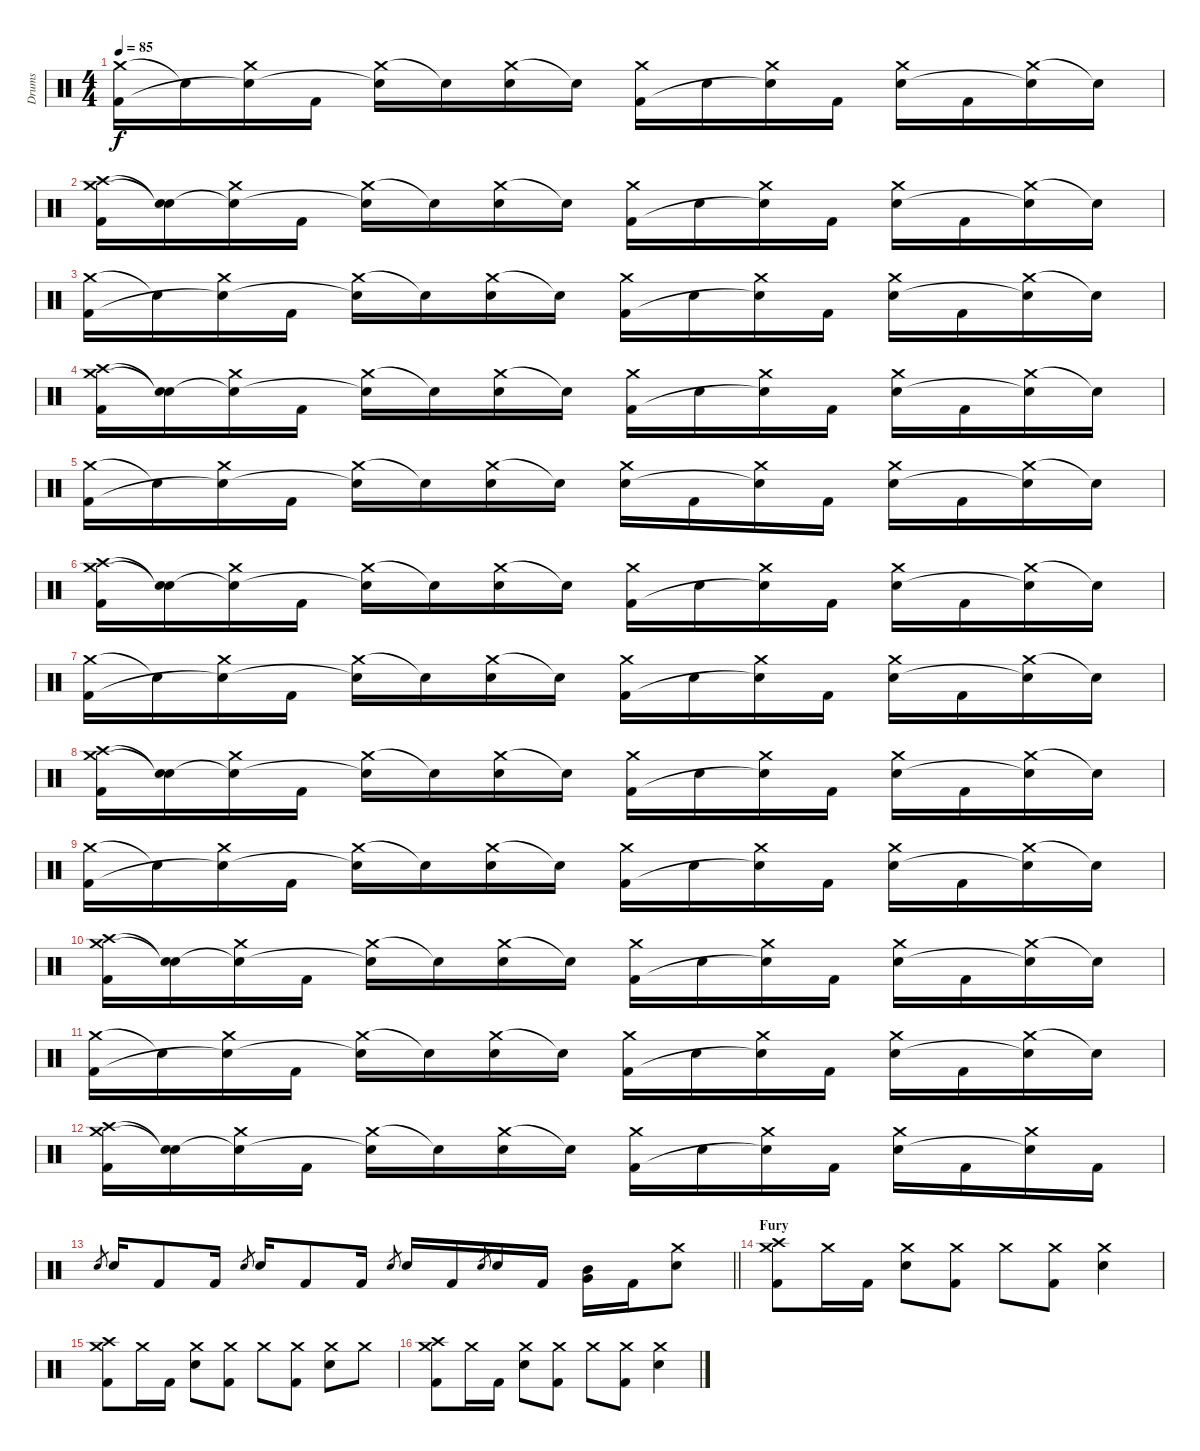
\track ("Drums" "Drums") {instrument percussion}
\staff {score}
\articulation defaults
\ts (4 4)
\tempo 85
\clef neutral
\ks c
("Crash medium (hit)" "Kick (hit) 2").16{dy f} "Snare (hit)"{t}.16 ("Crash medium (hit)" "Snare (hit)"{t}).16 "Kick (hit) 2".16 ("Crash medium (hit)" "Snare (hit)"{t}).16 "Snare (hit)"{t}.16 ("Crash medium (hit)" "Snare (hit) 2").16 "Snare (hit)"{t}.16 ("Crash medium (hit)" "Kick (hit) 2").16 "Snare (hit) 2".16 ("Crash medium (hit)" "Snare (hit)"{t}).16 "Kick (hit) 2".16 ("Crash medium (hit)" "Snare (hit) 2").16 "Kick (hit) 2".16 ("Crash medium (hit)" "Snare (hit)"{t}).16 "Snare (hit)"{t}.16 |
("Crash high (hit)" "Crash medium (hit)" "Kick (hit) 2").16 ("Snare (hit)"{t} "Snare (hit)"{t}).16 ("Crash medium (hit)" "Snare (hit)"{t}).16 "Kick (hit) 2".16 ("Crash medium (hit)" "Snare (hit)"{t}).16 "Snare (hit)"{t}.16 ("Crash medium (hit)" "Snare (hit) 2").16 "Snare (hit)"{t}.16 ("Crash medium (hit)" "Kick (hit) 2").16 "Snare (hit) 2".16 ("Crash medium (hit)" "Snare (hit)"{t}).16 "Kick (hit) 2".16 ("Crash medium (hit)" "Snare (hit) 2").16 "Kick (hit) 2".16 ("Crash medium (hit)" "Snare (hit)"{t}).16 "Snare (hit)"{t}.16 |
("Crash medium (hit)" "Kick (hit) 2").16 "Snare (hit)"{t}.16 ("Crash medium (hit)" "Snare (hit)"{t}).16 "Kick (hit) 2".16 ("Crash medium (hit)" "Snare (hit)"{t}).16 "Snare (hit)"{t}.16 ("Crash medium (hit)" "Snare (hit) 2").16 "Snare (hit)"{t}.16 ("Crash medium (hit)" "Kick (hit) 2").16 "Snare (hit) 2".16 ("Crash medium (hit)" "Snare (hit)"{t}).16 "Kick (hit) 2".16 ("Crash medium (hit)" "Snare (hit) 2").16 "Kick (hit) 2".16 ("Crash medium (hit)" "Snare (hit)"{t}).16 "Snare (hit)"{t}.16 |
("Crash high (hit)" "Crash medium (hit)" "Kick (hit) 2").16 ("Snare (hit)"{t} "Snare (hit)"{t}).16 ("Crash medium (hit)" "Snare (hit)"{t}).16 "Kick (hit) 2".16 ("Crash medium (hit)" "Snare (hit)"{t}).16 "Snare (hit)"{t}.16 ("Crash medium (hit)" "Snare (hit) 2").16 "Snare (hit)"{t}.16 ("Crash medium (hit)" "Kick (hit) 2").16 "Snare (hit) 2".16 ("Crash medium (hit)" "Snare (hit)"{t}).16 "Kick (hit) 2".16 ("Crash medium (hit)" "Snare (hit) 2").16 "Kick (hit) 2".16 ("Crash medium (hit)" "Snare (hit)"{t}).16 "Snare (hit)"{t}.16 |
("Crash medium (hit)" "Kick (hit) 2").16 "Snare (hit)"{t}.16 ("Crash medium (hit)" "Snare (hit)"{t}).16 "Kick (hit) 2".16 ("Crash medium (hit)" "Snare (hit)"{t}).16 "Snare (hit)"{t}.16 ("Crash medium (hit)" "Snare (hit) 2").16 "Snare (hit)"{t}.16 ("Crash medium (hit)" "Snare (hit) 2").16 "Kick (hit) 2".16 ("Crash medium (hit)" "Snare (hit)"{t}).16 "Kick (hit) 2".16 ("Crash medium (hit)" "Snare (hit) 2").16 "Kick (hit) 2".16 ("Crash medium (hit)" "Snare (hit)"{t}).16 "Snare (hit)"{t}.16 |
("Crash high (hit)" "Crash medium (hit)" "Kick (hit) 2").16 ("Snare (hit)"{t} "Snare (hit)"{t}).16 ("Crash medium (hit)" "Snare (hit)"{t}).16 "Kick (hit) 2".16 ("Crash medium (hit)" "Snare (hit)"{t}).16 "Snare (hit)"{t}.16 ("Crash medium (hit)" "Snare (hit) 2").16 "Snare (hit)"{t}.16 ("Crash medium (hit)" "Kick (hit) 2").16 "Snare (hit) 2".16 ("Crash medium (hit)" "Snare (hit)"{t}).16 "Kick (hit) 2".16 ("Crash medium (hit)" "Snare (hit) 2").16 "Kick (hit) 2".16 ("Crash medium (hit)" "Snare (hit)"{t}).16 "Snare (hit)"{t}.16 |
("Crash medium (hit)" "Kick (hit) 2").16 "Snare (hit)"{t}.16 ("Crash medium (hit)" "Snare (hit)"{t}).16 "Kick (hit) 2".16 ("Crash medium (hit)" "Snare (hit)"{t}).16 "Snare (hit)"{t}.16 ("Crash medium (hit)" "Snare (hit) 2").16 "Snare (hit)"{t}.16 ("Crash medium (hit)" "Kick (hit) 2").16 "Snare (hit) 2".16 ("Crash medium (hit)" "Snare (hit)"{t}).16 "Kick (hit) 2".16 ("Crash medium (hit)" "Snare (hit) 2").16 "Kick (hit) 2".16 ("Crash medium (hit)" "Snare (hit)"{t}).16 "Snare (hit)"{t}.16 |
("Crash high (hit)" "Crash medium (hit)" "Kick (hit) 2").16 ("Snare (hit)"{t} "Snare (hit)"{t}).16 ("Crash medium (hit)" "Snare (hit)"{t}).16 "Kick (hit) 2".16 ("Crash medium (hit)" "Snare (hit)"{t}).16 "Snare (hit)"{t}.16 ("Crash medium (hit)" "Snare (hit) 2").16 "Snare (hit)"{t}.16 ("Crash medium (hit)" "Kick (hit) 2").16 "Snare (hit) 2".16 ("Crash medium (hit)" "Snare (hit)"{t}).16 "Kick (hit) 2".16 ("Crash medium (hit)" "Snare (hit) 2").16 "Kick (hit) 2".16 ("Crash medium (hit)" "Snare (hit)"{t}).16 "Snare (hit)"{t}.16 |
("Crash medium (hit)" "Kick (hit) 2").16 "Snare (hit)"{t}.16 ("Crash medium (hit)" "Snare (hit)"{t}).16 "Kick (hit) 2".16 ("Crash medium (hit)" "Snare (hit)"{t}).16 "Snare (hit)"{t}.16 ("Crash medium (hit)" "Snare (hit) 2").16 "Snare (hit)"{t}.16 ("Crash medium (hit)" "Kick (hit) 2").16 "Snare (hit) 2".16 ("Crash medium (hit)" "Snare (hit)"{t}).16 "Kick (hit) 2".16 ("Crash medium (hit)" "Snare (hit) 2").16 "Kick (hit) 2".16 ("Crash medium (hit)" "Snare (hit)"{t}).16 "Snare (hit)"{t}.16 |
("Crash high (hit)" "Crash medium (hit)" "Kick (hit) 2").16 ("Snare (hit)"{t} "Snare (hit)"{t}).16 ("Crash medium (hit)" "Snare (hit)"{t}).16 "Kick (hit) 2".16 ("Crash medium (hit)" "Snare (hit)"{t}).16 "Snare (hit)"{t}.16 ("Crash medium (hit)" "Snare (hit) 2").16 "Snare (hit)"{t}.16 ("Crash medium (hit)" "Kick (hit) 2").16 "Snare (hit) 2".16 ("Crash medium (hit)" "Snare (hit)"{t}).16 "Kick (hit) 2".16 ("Crash medium (hit)" "Snare (hit) 2").16 "Kick (hit) 2".16 ("Crash medium (hit)" "Snare (hit)"{t}).16 "Snare (hit)"{t}.16 |
("Crash medium (hit)" "Kick (hit) 2").16 "Snare (hit)"{t}.16 ("Crash medium (hit)" "Snare (hit)"{t}).16 "Kick (hit) 2".16 ("Crash medium (hit)" "Snare (hit)"{t}).16 "Snare (hit)"{t}.16 ("Crash medium (hit)" "Snare (hit) 2").16 "Snare (hit)"{t}.16 ("Crash medium (hit)" "Kick (hit) 2").16 "Snare (hit) 2".16 ("Crash medium (hit)" "Snare (hit)"{t}).16 "Kick (hit) 2".16 ("Crash medium (hit)" "Snare (hit) 2").16 "Kick (hit) 2".16 ("Crash medium (hit)" "Snare (hit)"{t}).16 "Snare (hit)"{t}.16 |
("Crash high (hit)" "Crash medium (hit)" "Kick (hit) 2").16 ("Snare (hit)"{t} "Snare (hit)"{t}).16 ("Crash medium (hit)" "Snare (hit)"{t}).16 "Kick (hit) 2".16 ("Crash medium (hit)" "Snare (hit)"{t}).16 "Snare (hit)"{t}.16 ("Crash medium (hit)" "Snare (hit) 2").16 "Snare (hit)"{t}.16 ("Crash medium (hit)" "Kick (hit) 2").16 "Snare (hit) 2".16 ("Crash medium (hit)" "Snare (hit)"{t}).16 "Kick (hit) 2".16 ("Crash medium (hit)" "Snare (hit) 2").16 "Kick (hit) 2".16 ("Crash medium (hit)" "Snare (hit)"{t}).16 "Kick (hit) 2".16 |
\barLineRight lightlight "Snare (hit) 2".8{gr} "Snare (hit) 2".16 "Kick (hit) 2".8 "Kick (hit) 2".16 "Snare (hit) 2".8{gr} "Snare (hit) 2".16 "Kick (hit) 2".8 "Kick (hit) 2".16 "Snare (hit) 2".8{gr} "Snare (hit) 2".16 "Kick (hit) 2".16 "Snare (hit) 2".8{gr} "Snare (hit) 2".16 "Kick (hit) 2".16
("Mid Tom (hit)" "Very Low Tom (hit)").16 "Kick (hit) 2".16 ("Crash medium (hit)" "Snare (hit) 2").8 |
\section ("" "Fury")
("Crash medium (hit)" "Crash high (hit)" "Kick (hit) 2").8 "Crash medium (hit)".16 "Kick (hit) 2".16 ("Crash medium (hit)" "Snare (hit) 2").8 ("Crash medium (hit)" "Kick (hit) 2").8 "Crash medium (hit)".8 ("Crash medium (hit)" "Kick (hit) 2").8 ("Crash medium (hit)" "Snare (hit) 2").4 |
("Crash medium (hit)" "Crash high (hit)" "Kick (hit) 2").8 "Crash medium (hit)".16 "Kick (hit) 2".16 ("Crash medium (hit)" "Snare (hit) 2").8 ("Crash medium (hit)" "Kick (hit) 2").8 "Crash medium (hit)".8 ("Crash medium (hit)" "Kick (hit) 2").8 ("Crash medium (hit)" "Snare (hit) 2").8 "Crash medium (hit)".8 |
("Crash medium (hit)" "Crash high (hit)" "Kick (hit) 2").8 "Crash medium (hit)".16 "Kick (hit) 2".16 ("Crash medium (hit)" "Snare (hit) 2").8 ("Crash medium (hit)" "Kick (hit) 2").8 "Crash medium (hit)".8 ("Crash medium (hit)" "Kick (hit) 2").8 ("Crash medium (hit)" "Snare (hit) 2").4
